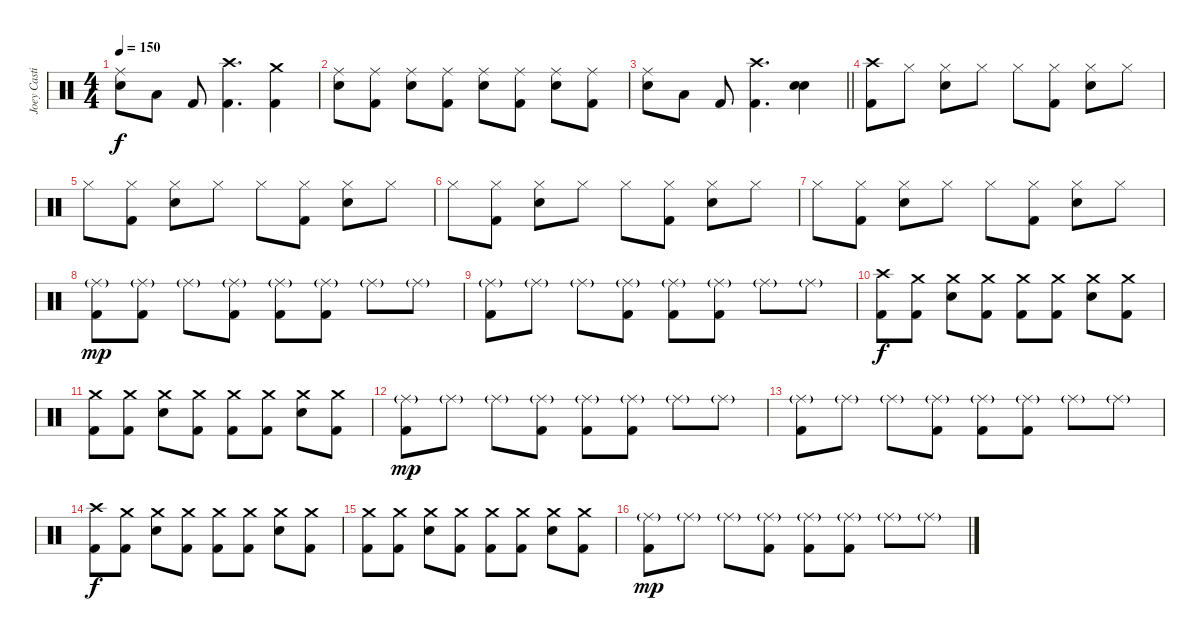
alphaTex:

\track ("Joey Castillo" "Joey Casti") {instrument percussion}
\staff {score}
\articulation defaults
\ts (4 4)
\tempo 150
\clef neutral
\ks c
("Ride (middle)" "Snare (hit) 2").8{dy f} "Low Tom (hit)".8 "Kick (hit) 2".8 ("Crash high (hit)" "Kick (hit) 2").4{d} ("Crash medium (hit)" "Kick (hit) 2").4 |
("Ride (middle)" "Snare (hit) 2").8 ("Ride (middle)" "Kick (hit) 2").8 ("Ride (middle)" "Snare (hit) 2").8 ("Ride (middle)" "Kick (hit) 2").8 ("Ride (middle)" "Snare (hit) 2").8 ("Ride (middle)" "Kick (hit) 2").8 ("Ride (middle)" "Snare (hit) 2").8 ("Ride (middle)" "Kick (hit) 2").8 |
\barLineRight lightlight
("Ride (middle)" "Snare (hit) 2").8 "Low Tom (hit)".8 "Kick (hit) 2".8 ("Crash high (hit)" "Kick (hit) 2").4{d} ("Snare (hit) 2" "Snare (hit) 2").4{bd 240} |
("Crash high (hit)" "Kick (hit) 2").8 "Hi-Hat (closed)".8 ("Hi-Hat (closed)" "Snare (hit) 2").8 "Hi-Hat (closed)".8 "Hi-Hat (closed)".8 ("Hi-Hat (closed)" "Kick (hit) 2").8 ("Hi-Hat (closed)" "Snare (hit) 2").8 "Hi-Hat (closed)".8 |
"Hi-Hat (closed)".8 ("Hi-Hat (closed)" "Kick (hit) 2").8 ("Hi-Hat (closed)" "Snare (hit) 2").8 "Hi-Hat (closed)".8 "Hi-Hat (closed)".8 ("Hi-Hat (closed)" "Kick (hit) 2").8 ("Hi-Hat (closed)" "Snare (hit) 2").8 "Hi-Hat (closed)".8 |
"Hi-Hat (closed)".8 ("Hi-Hat (closed)" "Kick (hit) 2").8 ("Hi-Hat (closed)" "Snare (hit) 2").8 "Hi-Hat (closed)".8 "Hi-Hat (closed)".8 ("Hi-Hat (closed)" "Kick (hit) 2").8 ("Hi-Hat (closed)" "Snare (hit) 2").8 "Hi-Hat (closed)".8 |
"Hi-Hat (closed)".8 ("Hi-Hat (closed)" "Kick (hit) 2").8 ("Hi-Hat (closed)" "Snare (hit) 2").8 "Hi-Hat (closed)".8 "Hi-Hat (closed)".8 ("Hi-Hat (closed)" "Kick (hit) 2").8 ("Hi-Hat (closed)" "Snare (hit) 2").8 "Hi-Hat (closed)".8 |
("Ride (middle)"{g} "Kick (hit) 2").8{dy mp} ("Ride (middle)"{g} "Kick (hit) 2").8 "Ride (middle)"{g}.8 ("Ride (middle)"{g} "Kick (hit) 2").8 ("Ride (middle)"{g} "Kick (hit) 2").8 ("Ride (middle)"{g} "Kick (hit) 2").8 "Ride (middle)"{g}.8 "Ride (middle)"{g}.8 |
("Ride (middle)"{g} "Kick (hit) 2").8 "Ride (middle)"{g}.8 "Ride (middle)"{g}.8 ("Ride (middle)"{g} "Kick (hit) 2").8 ("Ride (middle)"{g} "Kick (hit) 2").8 ("Ride (middle)"{g} "Kick (hit) 2").8 "Ride (middle)"{g}.8 "Ride (middle)"{g}.8 |
("Crash high (hit)" "Kick (hit) 2").8{dy f} ("Crash medium (hit)" "Kick (hit) 2").8 ("Crash medium (hit)" "Snare (hit) 2").8 ("Crash medium (hit)" "Kick (hit) 2").8 ("Crash medium (hit)" "Kick (hit) 2").8 ("Crash medium (hit)" "Kick (hit) 2").8 ("Crash medium (hit)" "Snare (hit) 2").8 ("Crash medium (hit)" "Kick (hit) 2").8 |
("Crash medium (hit)" "Kick (hit) 2").8 ("Crash medium (hit)" "Kick (hit) 2").8 ("Crash medium (hit)" "Snare (hit) 2").8 ("Crash medium (hit)" "Kick (hit) 2").8 ("Crash medium (hit)" "Kick (hit) 2").8 ("Crash medium (hit)" "Kick (hit) 2").8 ("Crash medium (hit)" "Snare (hit) 2").8 ("Crash medium (hit)" "Kick (hit) 2").8 |
("Ride (middle)"{g} "Kick (hit) 2").8{dy mp} "Ride (middle)"{g}.8 "Ride (middle)"{g}.8 ("Ride (middle)"{g} "Kick (hit) 2").8 ("Ride (middle)"{g} "Kick (hit) 2").8 ("Ride (middle)"{g} "Kick (hit) 2").8 "Ride (middle)"{g}.8 "Ride (middle)"{g}.8 |
("Ride (middle)"{g} "Kick (hit) 2").8 "Ride (middle)"{g}.8 "Ride (middle)"{g}.8 ("Ride (middle)"{g} "Kick (hit) 2").8 ("Ride (middle)"{g} "Kick (hit) 2").8 ("Ride (middle)"{g} "Kick (hit) 2").8 "Ride (middle)"{g}.8 "Ride (middle)"{g}.8 |
("Crash high (hit)" "Kick (hit) 2").8{dy f} ("Crash medium (hit)" "Kick (hit) 2").8 ("Crash medium (hit)" "Snare (hit) 2").8 ("Crash medium (hit)" "Kick (hit) 2").8 ("Crash medium (hit)" "Kick (hit) 2").8 ("Crash medium (hit)" "Kick (hit) 2").8 ("Crash medium (hit)" "Snare (hit) 2").8 ("Crash medium (hit)" "Kick (hit) 2").8 |
("Crash medium (hit)" "Kick (hit) 2").8 ("Crash medium (hit)" "Kick (hit) 2").8 ("Crash medium (hit)" "Snare (hit) 2").8 ("Crash medium (hit)" "Kick (hit) 2").8 ("Crash medium (hit)" "Kick (hit) 2").8 ("Crash medium (hit)" "Kick (hit) 2").8 ("Crash medium (hit)" "Snare (hit) 2").8 ("Crash medium (hit)" "Kick (hit) 2").8 |
("Ride (middle)"{g} "Kick (hit) 2").8{dy mp} "Ride (middle)"{g}.8 "Ride (middle)"{g}.8 ("Ride (middle)"{g} "Kick (hit) 2").8 ("Ride (middle)"{g} "Kick (hit) 2").8 ("Ride (middle)"{g} "Kick (hit) 2").8 "Ride (middle)"{g}.8 "Ride (middle)"{g}.8
